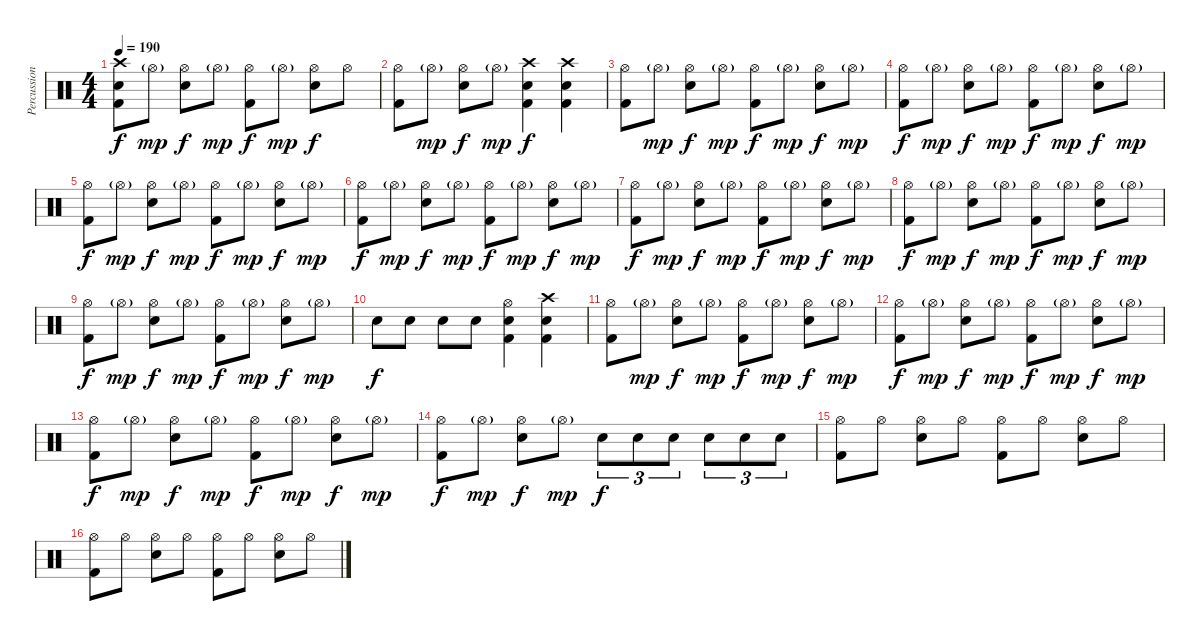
\track ("Percussions" "Percussion") {instrument percussion}
\staff {score}
\articulation defaults
\ts (4 4)
\tempo 190
\clef neutral
\ks c
("Crash high (hit)" "Snare (hit) 2" "Kick (hit) 2").8{dy f} "Hi-Hat (open)"{g}.8{dy mp} ("Hi-Hat (open)" "Snare (hit) 2").8{dy f} "Hi-Hat (open)"{g}.8{dy mp} ("Hi-Hat (open)" "Kick (hit) 2").8{dy f} "Hi-Hat (open)"{g}.8{dy mp} ("Hi-Hat (open)" "Snare (hit) 2").8{dy f} "Hi-Hat (open)".8 |
("Hi-Hat (open)" "Kick (hit) 2").8 "Hi-Hat (open)"{g}.8{dy mp} ("Hi-Hat (open)" "Snare (hit) 2").8{dy f} "Hi-Hat (open)"{g}.8{dy mp} ("Crash high (hit)" "Snare (hit) 2" "Kick (hit) 2").4{dy f} ("Crash high (hit)" "Snare (hit) 2" "Kick (hit) 2").4 |
("Hi-Hat (open)" "Kick (hit) 2").8 "Hi-Hat (open)"{g}.8{dy mp} ("Hi-Hat (open)" "Snare (hit) 2").8{dy f} "Hi-Hat (open)"{g}.8{dy mp} ("Hi-Hat (open)" "Kick (hit) 2").8{dy f} "Hi-Hat (open)"{g}.8{dy mp} ("Hi-Hat (open)" "Snare (hit) 2").8{dy f} "Hi-Hat (open)"{g}.8{dy mp} |
("Hi-Hat (open)" "Kick (hit) 2").8{dy f} "Hi-Hat (open)"{g}.8{dy mp} ("Hi-Hat (open)" "Snare (hit) 2").8{dy f} "Hi-Hat (open)"{g}.8{dy mp} ("Hi-Hat (open)" "Kick (hit) 2").8{dy f} "Hi-Hat (open)"{g}.8{dy mp} ("Hi-Hat (open)" "Snare (hit) 2").8{dy f} "Hi-Hat (open)"{g}.8{dy mp} |
("Hi-Hat (open)" "Kick (hit) 2").8{dy f} "Hi-Hat (open)"{g}.8{dy mp} ("Hi-Hat (open)" "Snare (hit) 2").8{dy f} "Hi-Hat (open)"{g}.8{dy mp} ("Hi-Hat (open)" "Kick (hit) 2").8{dy f} "Hi-Hat (open)"{g}.8{dy mp} ("Hi-Hat (open)" "Snare (hit) 2").8{dy f} "Hi-Hat (open)"{g}.8{dy mp} |
("Hi-Hat (open)" "Kick (hit) 2").8{dy f} "Hi-Hat (open)"{g}.8{dy mp} ("Hi-Hat (open)" "Snare (hit) 2").8{dy f} "Hi-Hat (open)"{g}.8{dy mp} ("Hi-Hat (open)" "Kick (hit) 2").8{dy f} "Hi-Hat (open)"{g}.8{dy mp} ("Hi-Hat (open)" "Snare (hit) 2").8{dy f} "Hi-Hat (open)"{g}.8{dy mp} |
("Hi-Hat (open)" "Kick (hit) 2").8{dy f} "Hi-Hat (open)"{g}.8{dy mp} ("Hi-Hat (open)" "Snare (hit) 2").8{dy f} "Hi-Hat (open)"{g}.8{dy mp} ("Hi-Hat (open)" "Kick (hit) 2").8{dy f} "Hi-Hat (open)"{g}.8{dy mp} ("Hi-Hat (open)" "Snare (hit) 2").8{dy f} "Hi-Hat (open)"{g}.8{dy mp} |
("Hi-Hat (open)" "Kick (hit) 2").8{dy f} "Hi-Hat (open)"{g}.8{dy mp} ("Hi-Hat (open)" "Snare (hit) 2").8{dy f} "Hi-Hat (open)"{g}.8{dy mp} ("Hi-Hat (open)" "Kick (hit) 2").8{dy f} "Hi-Hat (open)"{g}.8{dy mp} ("Hi-Hat (open)" "Snare (hit) 2").8{dy f} "Hi-Hat (open)"{g}.8{dy mp} |
("Hi-Hat (open)" "Kick (hit) 2").8{dy f} "Hi-Hat (open)"{g}.8{dy mp} ("Hi-Hat (open)" "Snare (hit) 2").8{dy f} "Hi-Hat (open)"{g}.8{dy mp} ("Hi-Hat (open)" "Kick (hit) 2").8{dy f} "Hi-Hat (open)"{g}.8{dy mp} ("Hi-Hat (open)" "Snare (hit) 2").8{dy f} "Hi-Hat (open)"{g}.8{dy mp} |
"Snare (hit) 2".8{dy f} "Snare (hit) 2".8 "Snare (hit) 2".8 "Snare (hit) 2".8 ("Hi-Hat (open)" "Snare (hit) 2" "Kick (hit) 2").4 ("Crash high (hit)" "Snare (hit) 2" "Kick (hit) 2").4 |
("Hi-Hat (open)" "Kick (hit) 2").8 "Hi-Hat (open)"{g}.8{dy mp} ("Hi-Hat (open)" "Snare (hit) 2").8{dy f} "Hi-Hat (open)"{g}.8{dy mp} ("Hi-Hat (open)" "Kick (hit) 2").8{dy f} "Hi-Hat (open)"{g}.8{dy mp} ("Hi-Hat (open)" "Snare (hit) 2").8{dy f} "Hi-Hat (open)"{g}.8{dy mp} |
("Hi-Hat (open)" "Kick (hit) 2").8{dy f} "Hi-Hat (open)"{g}.8{dy mp} ("Hi-Hat (open)" "Snare (hit) 2").8{dy f} "Hi-Hat (open)"{g}.8{dy mp} ("Hi-Hat (open)" "Kick (hit) 2").8{dy f} "Hi-Hat (open)"{g}.8{dy mp} ("Hi-Hat (open)" "Snare (hit) 2").8{dy f} "Hi-Hat (open)"{g}.8{dy mp} |
("Hi-Hat (open)" "Kick (hit) 2").8{dy f} "Hi-Hat (open)"{g}.8{dy mp} ("Hi-Hat (open)" "Snare (hit) 2").8{dy f} "Hi-Hat (open)"{g}.8{dy mp} ("Hi-Hat (open)" "Kick (hit) 2").8{dy f} "Hi-Hat (open)"{g}.8{dy mp} ("Hi-Hat (open)" "Snare (hit) 2").8{dy f} "Hi-Hat (open)"{g}.8{dy mp} |
("Hi-Hat (open)" "Kick (hit) 2").8{dy f} "Hi-Hat (open)"{g}.8{dy mp} ("Hi-Hat (open)" "Snare (hit) 2").8{dy f} "Hi-Hat (open)"{g}.8{dy mp} "Snare (hit) 2".8{tu (3 2) dy f} "Snare (hit) 2".8{tu (3 2)} "Snare (hit) 2".8{tu (3 2)} "Snare (hit) 2".8{tu (3 2)} "Snare (hit) 2".8{tu (3 2)} "Snare (hit) 2".8{tu (3 2)} |
("Hi-Hat (open)" "Kick (hit) 2").8 "Hi-Hat (open)".8 ("Hi-Hat (open)" "Snare (hit) 2").8 "Hi-Hat (open)".8 ("Hi-Hat (open)" "Kick (hit) 2").8 "Hi-Hat (open)".8 ("Hi-Hat (open)" "Snare (hit) 2").8 "Hi-Hat (open)".8 |
("Hi-Hat (open)" "Kick (hit) 2").8 "Hi-Hat (open)".8 ("Hi-Hat (open)" "Snare (hit) 2").8 "Hi-Hat (open)".8 ("Hi-Hat (open)" "Kick (hit) 2").8 "Hi-Hat (open)".8 ("Hi-Hat (open)" "Snare (hit) 2").8 "Hi-Hat (open)".8
